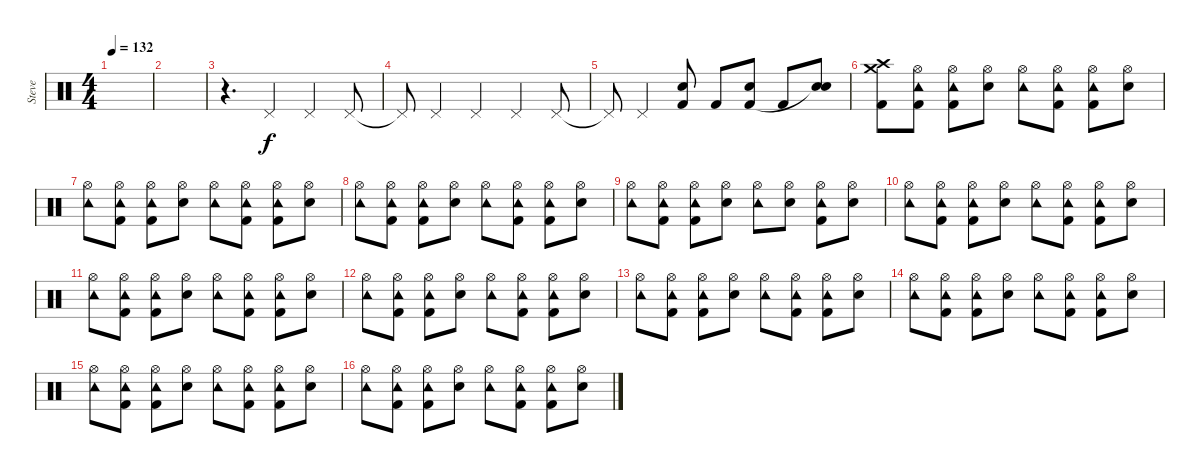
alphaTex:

\track ("Steve" "Steve") {instrument percussion}
\staff {score}
\articulation defaults
\ts (4 4)
\tempo 132
\clef neutral
\ks c
|
|
r.4{d} "Pedal Hi-Hat (hit)".4 "Pedal Hi-Hat (hit)".4 "Pedal Hi-Hat (hit)".8 |
"Pedal Hi-Hat (hit)"{t}.8 "Pedal Hi-Hat (hit)".4 "Pedal Hi-Hat (hit)".4 "Pedal Hi-Hat (hit)".4 "Pedal Hi-Hat (hit)".8 |
"Pedal Hi-Hat (hit)"{t}.8 "Pedal Hi-Hat (hit)".4 ("Snare (hit) 2" "Kick (hit) 2").8 "Kick (hit) 2".8 ("Snare (hit) 2" "Kick (hit) 2").8 "Kick (hit) 2".8 ("Snare (hit) 2" "Snare (hit)"{t}).8 |
("Crash high (hit)" "Crash medium (hit)" "Kick (hit) 2").8 ("Hi-Hat (open)" "Tambourine (hit)" "Kick (hit) 2").8 ("Hi-Hat (open)" "Tambourine (hit)" "Kick (hit) 2").8 ("Hi-Hat (open)" "Snare (hit) 2").8 ("Hi-Hat (open)" "Tambourine (hit)").8 ("Hi-Hat (open)" "Tambourine (hit)" "Kick (hit) 2").8 ("Hi-Hat (open)" "Tambourine (hit)" "Kick (hit) 2").8 ("Hi-Hat (open)" "Snare (hit) 2").8 |
("Hi-Hat (open)" "Tambourine (hit)").8 ("Hi-Hat (open)" "Tambourine (hit)" "Kick (hit) 2").8 ("Hi-Hat (open)" "Tambourine (hit)" "Kick (hit) 2").8 ("Hi-Hat (open)" "Snare (hit) 2").8 ("Hi-Hat (open)" "Tambourine (hit)").8 ("Hi-Hat (open)" "Tambourine (hit)" "Kick (hit) 2").8 ("Hi-Hat (open)" "Tambourine (hit)" "Kick (hit) 2").8 ("Hi-Hat (open)" "Snare (hit) 2").8 |
("Hi-Hat (open)" "Tambourine (hit)").8 ("Hi-Hat (open)" "Tambourine (hit)" "Kick (hit) 2").8 ("Hi-Hat (open)" "Tambourine (hit)" "Kick (hit) 2").8 ("Hi-Hat (open)" "Snare (hit) 2").8 ("Hi-Hat (open)" "Tambourine (hit)").8 ("Hi-Hat (open)" "Tambourine (hit)" "Kick (hit) 2").8 ("Hi-Hat (open)" "Tambourine (hit)" "Kick (hit) 2").8 ("Hi-Hat (open)" "Snare (hit) 2").8 |
("Hi-Hat (open)" "Tambourine (hit)").8 ("Hi-Hat (open)" "Tambourine (hit)" "Kick (hit) 2").8 ("Hi-Hat (open)" "Tambourine (hit)" "Kick (hit) 2").8 ("Hi-Hat (open)" "Snare (hit) 2").8 ("Hi-Hat (open)" "Tambourine (hit)").8 ("Hi-Hat (open)" "Snare (hit) 2").8 ("Hi-Hat (open)" "Tambourine (hit)" "Kick (hit) 2").8 ("Hi-Hat (open)" "Snare (hit) 2").8 |
("Hi-Hat (open)" "Tambourine (hit)").8 ("Hi-Hat (open)" "Tambourine (hit)" "Kick (hit) 2").8 ("Hi-Hat (open)" "Tambourine (hit)" "Kick (hit) 2").8 ("Hi-Hat (open)" "Snare (hit) 2").8 ("Hi-Hat (open)" "Tambourine (hit)").8 ("Hi-Hat (open)" "Tambourine (hit)" "Kick (hit) 2").8 ("Hi-Hat (open)" "Tambourine (hit)" "Kick (hit) 2").8 ("Hi-Hat (open)" "Snare (hit) 2").8 |
("Hi-Hat (open)" "Tambourine (hit)").8 ("Hi-Hat (open)" "Tambourine (hit)" "Kick (hit) 2").8 ("Hi-Hat (open)" "Tambourine (hit)" "Kick (hit) 2").8 ("Hi-Hat (open)" "Snare (hit) 2").8 ("Hi-Hat (open)" "Tambourine (hit)").8 ("Hi-Hat (open)" "Tambourine (hit)" "Kick (hit) 2").8 ("Hi-Hat (open)" "Tambourine (hit)" "Kick (hit) 2").8 ("Hi-Hat (open)" "Snare (hit) 2").8 |
("Hi-Hat (open)" "Tambourine (hit)").8 ("Hi-Hat (open)" "Tambourine (hit)" "Kick (hit) 2").8 ("Hi-Hat (open)" "Tambourine (hit)" "Kick (hit) 2").8 ("Hi-Hat (open)" "Snare (hit) 2").8 ("Hi-Hat (open)" "Tambourine (hit)").8 ("Hi-Hat (open)" "Tambourine (hit)" "Kick (hit) 2").8 ("Hi-Hat (open)" "Tambourine (hit)" "Kick (hit) 2").8 ("Hi-Hat (open)" "Snare (hit) 2").8 |
("Hi-Hat (open)" "Tambourine (hit)").8 ("Hi-Hat (open)" "Tambourine (hit)" "Kick (hit) 2").8 ("Hi-Hat (open)" "Tambourine (hit)" "Kick (hit) 2").8 ("Hi-Hat (open)" "Snare (hit) 2").8 ("Hi-Hat (open)" "Tambourine (hit)").8 ("Hi-Hat (open)" "Tambourine (hit)" "Kick (hit) 2").8 ("Hi-Hat (open)" "Tambourine (hit)" "Kick (hit) 2").8 ("Hi-Hat (open)" "Snare (hit) 2").8 |
("Hi-Hat (open)" "Tambourine (hit)").8 ("Hi-Hat (open)" "Tambourine (hit)" "Kick (hit) 2").8 ("Hi-Hat (open)" "Tambourine (hit)" "Kick (hit) 2").8 ("Hi-Hat (open)" "Snare (hit) 2").8 ("Hi-Hat (open)" "Tambourine (hit)").8 ("Hi-Hat (open)" "Tambourine (hit)" "Kick (hit) 2").8 ("Hi-Hat (open)" "Tambourine (hit)" "Kick (hit) 2").8 ("Hi-Hat (open)" "Snare (hit) 2").8 |
("Hi-Hat (open)" "Tambourine (hit)").8 ("Hi-Hat (open)" "Tambourine (hit)" "Kick (hit) 2").8 ("Hi-Hat (open)" "Tambourine (hit)" "Kick (hit) 2").8 ("Hi-Hat (open)" "Snare (hit) 2").8 ("Hi-Hat (open)" "Tambourine (hit)").8 ("Hi-Hat (open)" "Tambourine (hit)" "Kick (hit) 2").8 ("Hi-Hat (open)" "Tambourine (hit)" "Kick (hit) 2").8 ("Hi-Hat (open)" "Snare (hit) 2").8 |
("Hi-Hat (open)" "Tambourine (hit)").8 ("Hi-Hat (open)" "Tambourine (hit)" "Kick (hit) 2").8 ("Hi-Hat (open)" "Tambourine (hit)" "Kick (hit) 2").8 ("Hi-Hat (open)" "Snare (hit) 2").8 ("Hi-Hat (open)" "Tambourine (hit)").8 ("Hi-Hat (open)" "Tambourine (hit)" "Kick (hit) 2").8 ("Hi-Hat (open)" "Tambourine (hit)" "Kick (hit) 2").8 ("Hi-Hat (open)" "Snare (hit) 2").8
